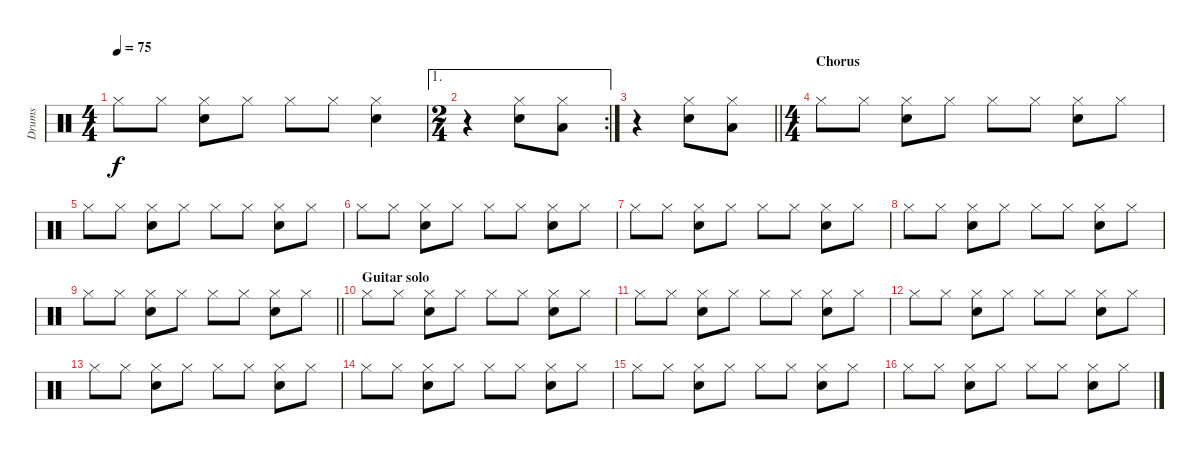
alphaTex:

\track ("Drums" "Drums") {instrument percussion}
\staff {score}
\articulation defaults
\ts (4 4)
\tempo 75
\clef neutral
\ks c "Hi-Hat (closed)".8{dy f} "Hi-Hat (closed)".8
("Electric Snare (hit)" "Hi-Hat (closed)").8 "Hi-Hat (closed)".8 "Hi-Hat (closed)".8 "Hi-Hat (closed)".8 ("Electric Snare (hit)" "Hi-Hat (closed)").4 |
\ae 1
\rc 2
\ts (2 4)
r.4 ("Electric Snare (hit)" "Hi-Hat (closed)").8 ("Low Tom (hit)" "Hi-Hat (closed)").8 |
\barLineRight lightlight
r.4 ("Electric Snare (hit)" "Hi-Hat (closed)").8 ("Low Tom (hit)" "Hi-Hat (closed)").8 |
\ts (4 4)
\section ("" "Chorus")
"Hi-Hat (closed)".8 "Hi-Hat (closed)".8 ("Electric Snare (hit)" "Hi-Hat (closed)").8 "Hi-Hat (closed)".8 "Hi-Hat (closed)".8 "Hi-Hat (closed)".8 ("Electric Snare (hit)" "Hi-Hat (closed)").8 "Hi-Hat (closed)".8 |
"Hi-Hat (closed)".8 "Hi-Hat (closed)".8 ("Electric Snare (hit)" "Hi-Hat (closed)").8 "Hi-Hat (closed)".8 "Hi-Hat (closed)".8 "Hi-Hat (closed)".8 ("Electric Snare (hit)" "Hi-Hat (closed)").8 "Hi-Hat (closed)".8 |
"Hi-Hat (closed)".8 "Hi-Hat (closed)".8 ("Electric Snare (hit)" "Hi-Hat (closed)").8 "Hi-Hat (closed)".8 "Hi-Hat (closed)".8 "Hi-Hat (closed)".8 ("Electric Snare (hit)" "Hi-Hat (closed)").8 "Hi-Hat (closed)".8 |
"Hi-Hat (closed)".8 "Hi-Hat (closed)".8 ("Electric Snare (hit)" "Hi-Hat (closed)").8 "Hi-Hat (closed)".8 "Hi-Hat (closed)".8 "Hi-Hat (closed)".8 ("Electric Snare (hit)" "Hi-Hat (closed)").8 "Hi-Hat (closed)".8 |
"Hi-Hat (closed)".8 "Hi-Hat (closed)".8 ("Electric Snare (hit)" "Hi-Hat (closed)").8 "Hi-Hat (closed)".8 "Hi-Hat (closed)".8 "Hi-Hat (closed)".8 ("Electric Snare (hit)" "Hi-Hat (closed)").8 "Hi-Hat (closed)".8 |
\barLineRight lightlight "Hi-Hat (closed)".8 "Hi-Hat (closed)".8
("Electric Snare (hit)" "Hi-Hat (closed)").8 "Hi-Hat (closed)".8 "Hi-Hat (closed)".8 "Hi-Hat (closed)".8 ("Electric Snare (hit)" "Hi-Hat (closed)").8 "Hi-Hat (closed)".8 |
\section ("" "Guitar solo")
"Hi-Hat (closed)".8 "Hi-Hat (closed)".8 ("Electric Snare (hit)" "Hi-Hat (closed)").8 "Hi-Hat (closed)".8 "Hi-Hat (closed)".8 "Hi-Hat (closed)".8 ("Electric Snare (hit)" "Hi-Hat (closed)").8 "Hi-Hat (closed)".8 |
"Hi-Hat (closed)".8 "Hi-Hat (closed)".8 ("Electric Snare (hit)" "Hi-Hat (closed)").8 "Hi-Hat (closed)".8 "Hi-Hat (closed)".8 "Hi-Hat (closed)".8 ("Electric Snare (hit)" "Hi-Hat (closed)").8 "Hi-Hat (closed)".8 |
"Hi-Hat (closed)".8 "Hi-Hat (closed)".8 ("Electric Snare (hit)" "Hi-Hat (closed)").8 "Hi-Hat (closed)".8 "Hi-Hat (closed)".8 "Hi-Hat (closed)".8 ("Electric Snare (hit)" "Hi-Hat (closed)").8 "Hi-Hat (closed)".8 |
"Hi-Hat (closed)".8 "Hi-Hat (closed)".8 ("Electric Snare (hit)" "Hi-Hat (closed)").8 "Hi-Hat (closed)".8 "Hi-Hat (closed)".8 "Hi-Hat (closed)".8 ("Electric Snare (hit)" "Hi-Hat (closed)").8 "Hi-Hat (closed)".8 |
"Hi-Hat (closed)".8 "Hi-Hat (closed)".8 ("Electric Snare (hit)" "Hi-Hat (closed)").8 "Hi-Hat (closed)".8 "Hi-Hat (closed)".8 "Hi-Hat (closed)".8 ("Electric Snare (hit)" "Hi-Hat (closed)").8 "Hi-Hat (closed)".8 |
"Hi-Hat (closed)".8 "Hi-Hat (closed)".8 ("Electric Snare (hit)" "Hi-Hat (closed)").8 "Hi-Hat (closed)".8 "Hi-Hat (closed)".8 "Hi-Hat (closed)".8 ("Electric Snare (hit)" "Hi-Hat (closed)").8 "Hi-Hat (closed)".8 |
"Hi-Hat (closed)".8 "Hi-Hat (closed)".8 ("Electric Snare (hit)" "Hi-Hat (closed)").8 "Hi-Hat (closed)".8 "Hi-Hat (closed)".8 "Hi-Hat (closed)".8 ("Electric Snare (hit)" "Hi-Hat (closed)").8 "Hi-Hat (closed)".8
